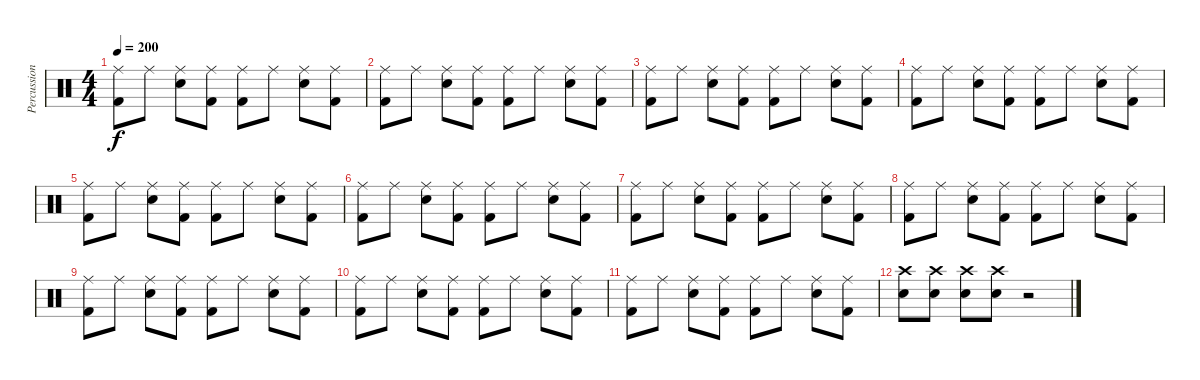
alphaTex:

\track ("Percussion" "Percussion") {instrument percussion}
\staff {score}
\articulation defaults
\ts (4 4)
\tempo 200
\clef neutral
\ks c
("Ride (middle)" "Kick (hit) 2").8{dy f} "Ride (middle)".8 ("Ride (middle)" "Snare (hit) 2").8 ("Ride (middle)" "Kick (hit) 2").8 ("Ride (middle)" "Kick (hit) 2").8 "Ride (middle)".8 ("Ride (middle)" "Snare (hit) 2").8 ("Ride (middle)" "Kick (hit) 2").8 |
("Ride (middle)" "Kick (hit) 2").8 "Ride (middle)".8 ("Ride (middle)" "Snare (hit) 2").8 ("Ride (middle)" "Kick (hit) 2").8 ("Ride (middle)" "Kick (hit) 2").8 "Ride (middle)".8 ("Ride (middle)" "Snare (hit) 2").8 ("Ride (middle)" "Kick (hit) 2").8 |
("Ride (middle)" "Kick (hit) 2").8 "Ride (middle)".8 ("Ride (middle)" "Snare (hit) 2").8 ("Ride (middle)" "Kick (hit) 2").8 ("Ride (middle)" "Kick (hit) 2").8 "Ride (middle)".8 ("Ride (middle)" "Snare (hit) 2").8 ("Ride (middle)" "Kick (hit) 2").8 |
("Ride (middle)" "Kick (hit) 2").8 "Ride (middle)".8 ("Ride (middle)" "Snare (hit) 2").8 ("Ride (middle)" "Kick (hit) 2").8 ("Ride (middle)" "Kick (hit) 2").8 "Ride (middle)".8 ("Ride (middle)" "Snare (hit) 2").8 ("Ride (middle)" "Kick (hit) 2").8 |
("Ride (middle)" "Kick (hit) 2").8 "Ride (middle)".8 ("Ride (middle)" "Snare (hit) 2").8 ("Ride (middle)" "Kick (hit) 2").8 ("Ride (middle)" "Kick (hit) 2").8 "Ride (middle)".8 ("Ride (middle)" "Snare (hit) 2").8 ("Ride (middle)" "Kick (hit) 2").8 |
("Ride (middle)" "Kick (hit) 2").8 "Ride (middle)".8 ("Ride (middle)" "Snare (hit) 2").8 ("Ride (middle)" "Kick (hit) 2").8 ("Ride (middle)" "Kick (hit) 2").8 "Ride (middle)".8 ("Ride (middle)" "Snare (hit) 2").8 ("Ride (middle)" "Kick (hit) 2").8 |
("Ride (middle)" "Kick (hit) 2").8 "Ride (middle)".8 ("Ride (middle)" "Snare (hit) 2").8 ("Ride (middle)" "Kick (hit) 2").8 ("Ride (middle)" "Kick (hit) 2").8 "Ride (middle)".8 ("Ride (middle)" "Snare (hit) 2").8 ("Ride (middle)" "Kick (hit) 2").8 |
("Ride (middle)" "Kick (hit) 2").8 "Ride (middle)".8 ("Ride (middle)" "Snare (hit) 2").8 ("Ride (middle)" "Kick (hit) 2").8 ("Ride (middle)" "Kick (hit) 2").8 "Ride (middle)".8 ("Ride (middle)" "Snare (hit) 2").8 ("Ride (middle)" "Kick (hit) 2").8 |
("Ride (middle)" "Kick (hit) 2").8 "Ride (middle)".8 ("Ride (middle)" "Snare (hit) 2").8 ("Ride (middle)" "Kick (hit) 2").8 ("Ride (middle)" "Kick (hit) 2").8 "Ride (middle)".8 ("Ride (middle)" "Snare (hit) 2").8 ("Ride (middle)" "Kick (hit) 2").8 |
("Ride (middle)" "Kick (hit) 2").8 "Ride (middle)".8 ("Ride (middle)" "Snare (hit) 2").8 ("Ride (middle)" "Kick (hit) 2").8 ("Ride (middle)" "Kick (hit) 2").8 "Ride (middle)".8 ("Ride (middle)" "Snare (hit) 2").8 ("Ride (middle)" "Kick (hit) 2").8 |
("Ride (middle)" "Kick (hit) 2").8 "Ride (middle)".8 ("Ride (middle)" "Snare (hit) 2").8 ("Ride (middle)" "Kick (hit) 2").8 ("Ride (middle)" "Kick (hit) 2").8 "Ride (middle)".8 ("Ride (middle)" "Snare (hit) 2").8 ("Ride (middle)" "Kick (hit) 2").8 |
("Crash high (hit)" "Snare (hit) 2").8 ("Crash high (hit)" "Snare (hit) 2").8 ("Crash high (hit)" "Snare (hit) 2").8 ("Crash high (hit)" "Snare (hit) 2").8 r.2
